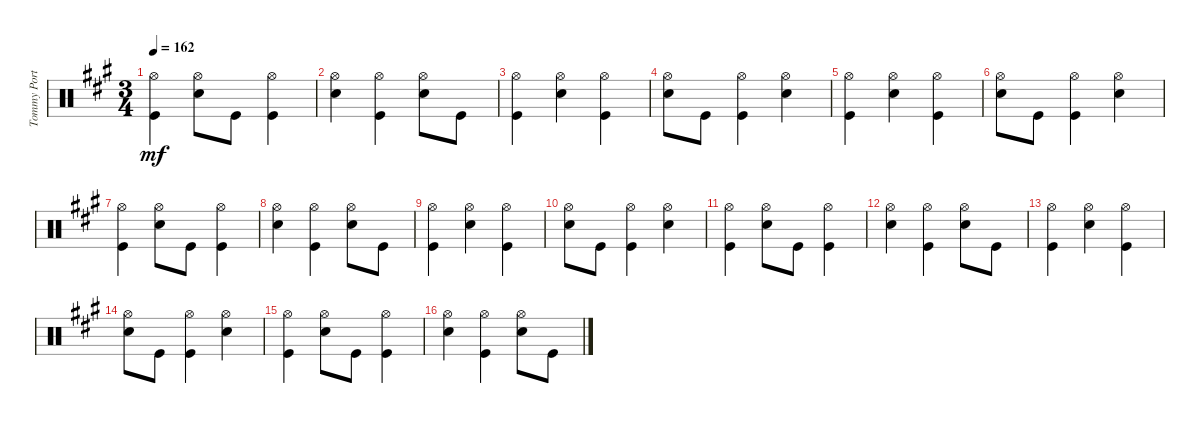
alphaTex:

\track ("Tommy Portimo (Drums)" "Tommy Port") {instrument percussion}
\staff {score}
\articulation defaults
\ts (3 4)
\tempo 162
\clef neutral
\ks a
("Kick (hit)" "Hi-Hat (open)").4{dy mf} ("Electric Snare (hit)" "Hi-Hat (open)").8 "Kick (hit)".8 ("Kick (hit)" "Hi-Hat (open)").4 |
("Electric Snare (hit)" "Hi-Hat (open)").4 ("Kick (hit)" "Hi-Hat (open)").4 ("Electric Snare (hit)" "Hi-Hat (open)").8 "Kick (hit)".8 |
("Kick (hit)" "Hi-Hat (open)").4 ("Electric Snare (hit)" "Hi-Hat (open)").4 ("Kick (hit)" "Hi-Hat (open)").4 |
("Electric Snare (hit)" "Hi-Hat (open)").8 "Kick (hit)".8 ("Kick (hit)" "Hi-Hat (open)").4 ("Electric Snare (hit)" "Hi-Hat (open)").4 |
("Kick (hit)" "Hi-Hat (open)").4 ("Electric Snare (hit)" "Hi-Hat (open)").4 ("Kick (hit)" "Hi-Hat (open)").4 |
("Electric Snare (hit)" "Hi-Hat (open)").8 "Kick (hit)".8 ("Kick (hit)" "Hi-Hat (open)").4 ("Electric Snare (hit)" "Hi-Hat (open)").4 |
("Kick (hit)" "Hi-Hat (open)").4 ("Electric Snare (hit)" "Hi-Hat (open)").8 "Kick (hit)".8 ("Kick (hit)" "Hi-Hat (open)").4 |
("Electric Snare (hit)" "Hi-Hat (open)").4 ("Kick (hit)" "Hi-Hat (open)").4 ("Electric Snare (hit)" "Hi-Hat (open)").8 "Kick (hit)".8 |
("Kick (hit)" "Hi-Hat (open)").4 ("Electric Snare (hit)" "Hi-Hat (open)").4 ("Kick (hit)" "Hi-Hat (open)").4 |
("Electric Snare (hit)" "Hi-Hat (open)").8 "Kick (hit)".8 ("Kick (hit)" "Hi-Hat (open)").4 ("Electric Snare (hit)" "Hi-Hat (open)").4 |
("Kick (hit)" "Hi-Hat (open)").4 ("Electric Snare (hit)" "Hi-Hat (open)").8 "Kick (hit)".8 ("Kick (hit)" "Hi-Hat (open)").4 |
("Electric Snare (hit)" "Hi-Hat (open)").4 ("Kick (hit)" "Hi-Hat (open)").4 ("Electric Snare (hit)" "Hi-Hat (open)").8 "Kick (hit)".8 |
("Kick (hit)" "Hi-Hat (open)").4 ("Electric Snare (hit)" "Hi-Hat (open)").4 ("Kick (hit)" "Hi-Hat (open)").4 |
("Electric Snare (hit)" "Hi-Hat (open)").8 "Kick (hit)".8 ("Kick (hit)" "Hi-Hat (open)").4 ("Electric Snare (hit)" "Hi-Hat (open)").4 |
("Kick (hit)" "Hi-Hat (open)").4 ("Electric Snare (hit)" "Hi-Hat (open)").8 "Kick (hit)".8 ("Kick (hit)" "Hi-Hat (open)").4 |
("Electric Snare (hit)" "Hi-Hat (open)").4 ("Kick (hit)" "Hi-Hat (open)").4 ("Electric Snare (hit)" "Hi-Hat (open)").8 "Kick (hit)".8
